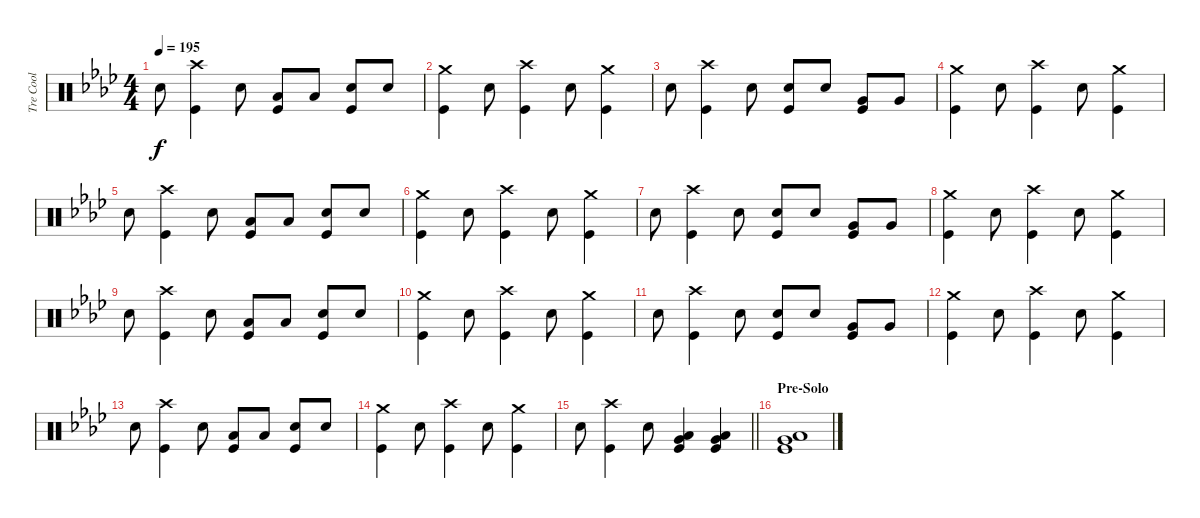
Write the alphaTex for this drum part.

\track ("Tre Cool" "Tre Cool") {instrument percussion}
\staff {score}
\articulation defaults
\ts (4 4)
\tempo 195
\clef neutral
\ks ab "Electric Snare (hit)".8{dy f}
("Crash high (hit)" "Kick (hit)").4 "Electric Snare (hit)".8 ("Low Tom (hit)" "Kick (hit)").8 "Low Tom (hit)".8 ("Electric Snare (hit)" "Kick (hit)").8 "Electric Snare (hit)".8 |
("Crash medium (hit)" "Kick (hit)").4 "Electric Snare (hit)".8 ("Crash high (hit)" "Kick (hit)").4 "Electric Snare (hit)".8 ("Crash medium (hit)" "Kick (hit)").4 |
"Electric Snare (hit)".8 ("Crash high (hit)" "Kick (hit)").4 "Electric Snare (hit)".8 ("Electric Snare (hit)" "Kick (hit)").8 "Electric Snare (hit)".8 ("Very Low Tom (hit)" "Kick (hit)").8 "Very Low Tom (hit)".8 |
("Crash medium (hit)" "Kick (hit)").4 "Electric Snare (hit)".8 ("Crash high (hit)" "Kick (hit)").4 "Electric Snare (hit)".8 ("Crash medium (hit)" "Kick (hit)").4 |
"Electric Snare (hit)".8 ("Crash high (hit)" "Kick (hit)").4 "Electric Snare (hit)".8 ("Low Tom (hit)" "Kick (hit)").8 "Low Tom (hit)".8 ("Electric Snare (hit)" "Kick (hit)").8 "Electric Snare (hit)".8 |
("Crash medium (hit)" "Kick (hit)").4 "Electric Snare (hit)".8 ("Crash high (hit)" "Kick (hit)").4 "Electric Snare (hit)".8 ("Crash medium (hit)" "Kick (hit)").4 |
"Electric Snare (hit)".8 ("Crash high (hit)" "Kick (hit)").4 "Electric Snare (hit)".8 ("Electric Snare (hit)" "Kick (hit)").8 "Electric Snare (hit)".8 ("Very Low Tom (hit)" "Kick (hit)").8 "Very Low Tom (hit)".8 |
("Crash medium (hit)" "Kick (hit)").4 "Electric Snare (hit)".8 ("Crash high (hit)" "Kick (hit)").4 "Electric Snare (hit)".8 ("Crash medium (hit)" "Kick (hit)").4 |
"Electric Snare (hit)".8 ("Crash high (hit)" "Kick (hit)").4 "Electric Snare (hit)".8 ("Low Tom (hit)" "Kick (hit)").8 "Low Tom (hit)".8 ("Electric Snare (hit)" "Kick (hit)").8 "Electric Snare (hit)".8 |
("Crash medium (hit)" "Kick (hit)").4 "Electric Snare (hit)".8 ("Crash high (hit)" "Kick (hit)").4 "Electric Snare (hit)".8 ("Crash medium (hit)" "Kick (hit)").4 |
"Electric Snare (hit)".8 ("Crash high (hit)" "Kick (hit)").4 "Electric Snare (hit)".8 ("Electric Snare (hit)" "Kick (hit)").8 "Electric Snare (hit)".8 ("Very Low Tom (hit)" "Kick (hit)").8 "Very Low Tom (hit)".8 |
("Crash medium (hit)" "Kick (hit)").4 "Electric Snare (hit)".8 ("Crash high (hit)" "Kick (hit)").4 "Electric Snare (hit)".8 ("Crash medium (hit)" "Kick (hit)").4 |
"Electric Snare (hit)".8 ("Crash high (hit)" "Kick (hit)").4 "Electric Snare (hit)".8 ("Low Tom (hit)" "Kick (hit)").8 "Low Tom (hit)".8 ("Electric Snare (hit)" "Kick (hit)").8 "Electric Snare (hit)".8 |
("Crash medium (hit)" "Kick (hit)").4 "Electric Snare (hit)".8 ("Crash high (hit)" "Kick (hit)").4 "Electric Snare (hit)".8 ("Crash medium (hit)" "Kick (hit)").4 |
\barLineRight lightlight "Electric Snare (hit)".8
("Crash high (hit)" "Kick (hit)").4 "Electric Snare (hit)".8 ("Low Floor Tom (hit)" "Very Low Tom (hit)" "Kick (hit)").4 ("Low Floor Tom (hit)" "Very Low Tom (hit)" "Kick (hit)").4 |
\section ("" "Pre-Solo")
("Low Floor Tom (hit)" "Very Low Tom (hit)" "Kick (hit)").1
